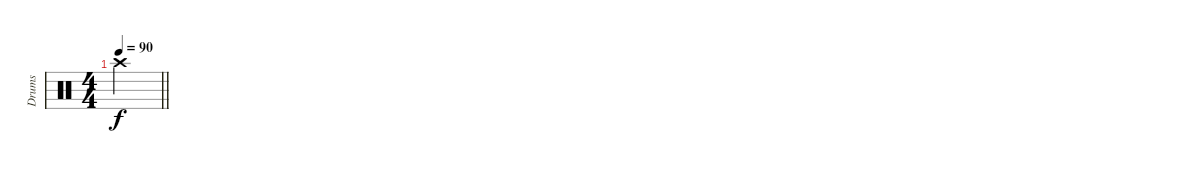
\track ("Drums" "Drums") {instrument percussion}
\staff {score}
\articulation defaults
\ts (4 4)
\tempo 90
\clef neutral
\barLineRight lightlight
\ks c "Crash high (hit)".2{dy f volume 4}
